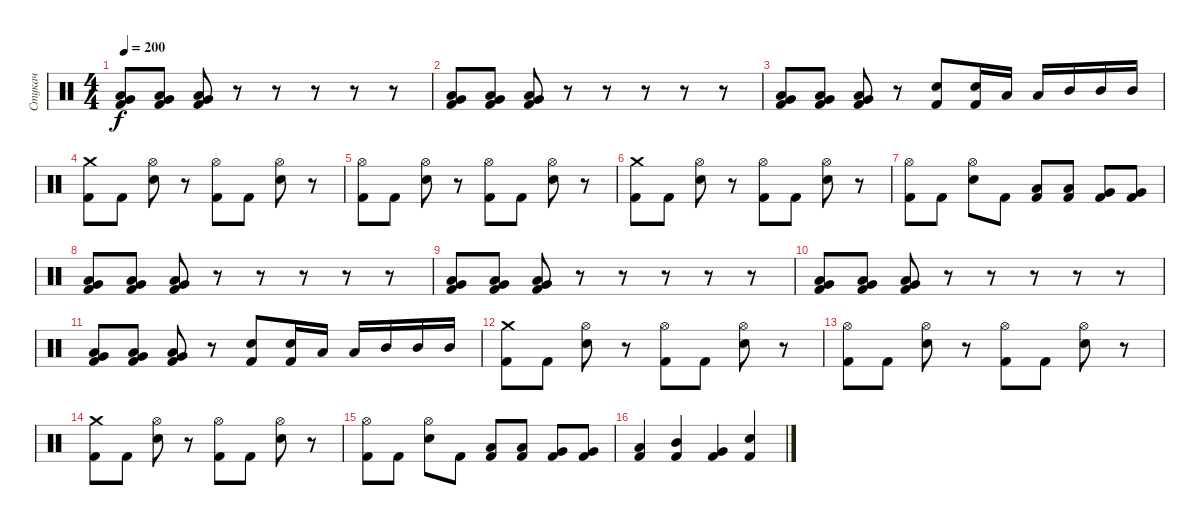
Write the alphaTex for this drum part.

\track ("Стукач" "Стукач") {instrument percussion}
\staff {score}
\articulation defaults
\ts (4 4)
\tempo 200
\clef neutral
\ks c
("Very Low Tom (hit)" "Low Tom (hit)" "Kick (hit) 2").8{dy f} ("Very Low Tom (hit)" "Low Tom (hit)" "Kick (hit) 2").8 ("Very Low Tom (hit)" "Low Tom (hit)" "Kick (hit) 2").8 r.8 r.8 r.8 r.8 r.8 |
("Very Low Tom (hit)" "Low Tom (hit)" "Kick (hit) 2").8 ("Very Low Tom (hit)" "Low Tom (hit)" "Kick (hit) 2").8 ("Very Low Tom (hit)" "Low Tom (hit)" "Kick (hit) 2").8 r.8 r.8 r.8 r.8 r.8 |
("Very Low Tom (hit)" "Low Tom (hit)" "Kick (hit) 2").8 ("Very Low Tom (hit)" "Low Tom (hit)" "Kick (hit) 2").8 ("Very Low Tom (hit)" "Low Tom (hit)" "Kick (hit) 2").8 r.8 ("Electric Snare (hit)" "Kick (hit) 2").8 ("Electric Snare (hit)" "Kick (hit) 2").16 "Low Tom (hit)".16 "Low Tom (hit)".16 "Mid Tom (hit)".16 "Mid Tom (hit)".16 "Mid Tom (hit)".16 |
("Crash medium (hit)" "Kick (hit) 2").8 "Kick (hit) 2".8 ("Hi-Hat (open)" "Electric Snare (hit)").8 r.8 ("Hi-Hat (open)" "Kick (hit) 2").8 "Kick (hit) 2".8 ("Hi-Hat (open)" "Electric Snare (hit)").8 r.8 |
("Hi-Hat (open)" "Kick (hit) 2").8 "Kick (hit) 2".8 ("Hi-Hat (open)" "Electric Snare (hit)").8 r.8 ("Hi-Hat (open)" "Kick (hit) 2").8 "Kick (hit) 2".8 ("Hi-Hat (open)" "Electric Snare (hit)").8 r.8 |
("Crash medium (hit)" "Kick (hit) 2").8 "Kick (hit) 2".8 ("Hi-Hat (open)" "Electric Snare (hit)").8 r.8 ("Hi-Hat (open)" "Kick (hit) 2").8 "Kick (hit) 2".8 ("Hi-Hat (open)" "Electric Snare (hit)").8 r.8 |
("Hi-Hat (open)" "Kick (hit) 2").8 "Kick (hit) 2".8 ("Hi-Hat (open)" "Electric Snare (hit)").8 "Kick (hit) 2".8 ("Low Tom (hit)" "Kick (hit) 2").8 ("Low Tom (hit)" "Kick (hit) 2").8 ("Very Low Tom (hit)" "Kick (hit) 2").8 ("Very Low Tom (hit)" "Kick (hit) 2").8 |
("Very Low Tom (hit)" "Low Tom (hit)" "Kick (hit) 2").8 ("Very Low Tom (hit)" "Low Tom (hit)" "Kick (hit) 2").8 ("Very Low Tom (hit)" "Low Tom (hit)" "Kick (hit) 2").8 r.8 r.8 r.8 r.8 r.8 |
("Very Low Tom (hit)" "Low Tom (hit)" "Kick (hit) 2").8 ("Very Low Tom (hit)" "Low Tom (hit)" "Kick (hit) 2").8 ("Very Low Tom (hit)" "Low Tom (hit)" "Kick (hit) 2").8 r.8 r.8 r.8 r.8 r.8 |
("Very Low Tom (hit)" "Low Tom (hit)" "Kick (hit) 2").8 ("Very Low Tom (hit)" "Low Tom (hit)" "Kick (hit) 2").8 ("Very Low Tom (hit)" "Low Tom (hit)" "Kick (hit) 2").8 r.8 r.8 r.8 r.8 r.8 |
("Very Low Tom (hit)" "Low Tom (hit)" "Kick (hit) 2").8 ("Very Low Tom (hit)" "Low Tom (hit)" "Kick (hit) 2").8 ("Very Low Tom (hit)" "Low Tom (hit)" "Kick (hit) 2").8 r.8 ("Electric Snare (hit)" "Kick (hit) 2").8 ("Electric Snare (hit)" "Kick (hit) 2").16 "Low Tom (hit)".16 "Low Tom (hit)".16 "Mid Tom (hit)".16 "Mid Tom (hit)".16 "Mid Tom (hit)".16 |
("Crash medium (hit)" "Kick (hit) 2").8 "Kick (hit) 2".8 ("Hi-Hat (open)" "Electric Snare (hit)").8 r.8 ("Hi-Hat (open)" "Kick (hit) 2").8 "Kick (hit) 2".8 ("Hi-Hat (open)" "Electric Snare (hit)").8 r.8 |
("Hi-Hat (open)" "Kick (hit) 2").8 "Kick (hit) 2".8 ("Hi-Hat (open)" "Electric Snare (hit)").8 r.8 ("Hi-Hat (open)" "Kick (hit) 2").8 "Kick (hit) 2".8 ("Hi-Hat (open)" "Electric Snare (hit)").8 r.8 |
("Crash medium (hit)" "Kick (hit) 2").8 "Kick (hit) 2".8 ("Hi-Hat (open)" "Electric Snare (hit)").8 r.8 ("Hi-Hat (open)" "Kick (hit) 2").8 "Kick (hit) 2".8 ("Hi-Hat (open)" "Electric Snare (hit)").8 r.8 |
("Hi-Hat (open)" "Kick (hit) 2").8 "Kick (hit) 2".8 ("Hi-Hat (open)" "Electric Snare (hit)").8 "Kick (hit) 2".8 ("Low Tom (hit)" "Kick (hit) 2").8 ("Low Tom (hit)" "Kick (hit) 2").8 ("Very Low Tom (hit)" "Kick (hit) 2").8 ("Very Low Tom (hit)" "Kick (hit) 2").8 |
("Low Tom (hit)" "Kick (hit) 2").4 ("Mid Tom (hit)" "Kick (hit) 2").4 ("Very Low Tom (hit)" "Kick (hit) 2").4 ("Electric Snare (hit)" "Kick (hit) 2").4
